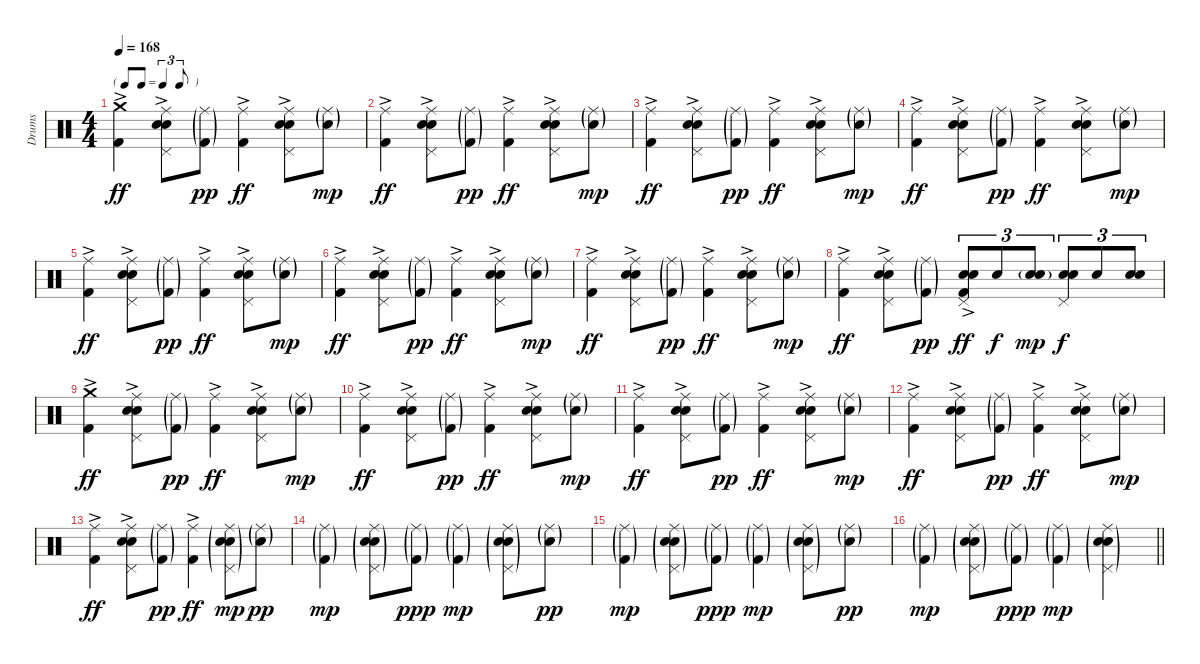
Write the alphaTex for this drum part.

\track ("Drums" "Drums") {instrument percussion}
\staff {score}
\articulation defaults
\ts (4 4)
\tf triplet8th
\tempo 168
\clef neutral
\ks c
("Crash medium (hit)" "Kick (hit) 2"{ac}).4{dy ff} ("Ride (middle)" "Pedal Hi-Hat (hit)" "Electric Snare (hit)"{ac} "Snare (hit) 2").8 ("Ride (middle)"{g} "Kick (hit) 2"{g}).8{dy pp} ("Ride (middle)" "Kick (hit) 2"{ac}).4{dy ff} ("Ride (middle)" "Pedal Hi-Hat (hit)" "Electric Snare (hit)"{ac} "Snare (hit) 2").8 ("Ride (middle)"{g} "Snare (hit) 2"{g}).8{dy mp} |
("Ride (middle)" "Kick (hit) 2"{ac}).4{dy ff} ("Ride (middle)" "Pedal Hi-Hat (hit)" "Electric Snare (hit)"{ac} "Snare (hit) 2").8 ("Ride (middle)"{g} "Kick (hit) 2"{g}).8{dy pp} ("Ride (middle)" "Kick (hit) 2"{ac}).4{dy ff} ("Ride (middle)" "Pedal Hi-Hat (hit)" "Electric Snare (hit)"{ac} "Snare (hit) 2").8 ("Ride (middle)"{g} "Snare (hit) 2"{g}).8{dy mp} |
("Ride (middle)" "Kick (hit) 2"{ac}).4{dy ff} ("Ride (middle)" "Pedal Hi-Hat (hit)" "Electric Snare (hit)"{ac} "Snare (hit) 2").8 ("Ride (middle)"{g} "Kick (hit) 2"{g}).8{dy pp} ("Ride (middle)" "Kick (hit) 2"{ac}).4{dy ff} ("Ride (middle)" "Pedal Hi-Hat (hit)" "Electric Snare (hit)"{ac} "Snare (hit) 2").8 ("Ride (middle)"{g} "Snare (hit) 2"{g}).8{dy mp} |
("Ride (middle)" "Kick (hit) 2"{ac}).4{dy ff} ("Ride (middle)" "Pedal Hi-Hat (hit)" "Electric Snare (hit)"{ac} "Snare (hit) 2").8 ("Ride (middle)"{g} "Kick (hit) 2"{g}).8{dy pp} ("Ride (middle)" "Kick (hit) 2"{ac}).4{dy ff} ("Ride (middle)" "Pedal Hi-Hat (hit)" "Electric Snare (hit)"{ac} "Snare (hit) 2").8 ("Ride (middle)"{g} "Snare (hit) 2"{g}).8{dy mp} |
("Ride (middle)" "Kick (hit) 2"{ac}).4{dy ff} ("Ride (middle)" "Pedal Hi-Hat (hit)" "Electric Snare (hit)"{ac} "Snare (hit) 2").8 ("Ride (middle)"{g} "Kick (hit) 2"{g}).8{dy pp} ("Ride (middle)" "Kick (hit) 2"{ac}).4{dy ff} ("Ride (middle)" "Pedal Hi-Hat (hit)" "Electric Snare (hit)"{ac} "Snare (hit) 2").8 ("Ride (middle)"{g} "Snare (hit) 2"{g}).8{dy mp} |
("Ride (middle)" "Kick (hit) 2"{ac}).4{dy ff} ("Ride (middle)" "Pedal Hi-Hat (hit)" "Electric Snare (hit)"{ac} "Snare (hit) 2").8 ("Ride (middle)"{g} "Kick (hit) 2"{g}).8{dy pp} ("Ride (middle)" "Kick (hit) 2"{ac}).4{dy ff} ("Ride (middle)" "Pedal Hi-Hat (hit)" "Electric Snare (hit)"{ac} "Snare (hit) 2").8 ("Ride (middle)"{g} "Snare (hit) 2"{g}).8{dy mp} |
("Ride (middle)" "Kick (hit) 2"{ac}).4{dy ff} ("Ride (middle)" "Pedal Hi-Hat (hit)" "Electric Snare (hit)"{ac} "Snare (hit) 2").8 ("Ride (middle)"{g} "Kick (hit) 2"{g}).8{dy pp} ("Ride (middle)" "Kick (hit) 2"{ac}).4{dy ff} ("Ride (middle)" "Pedal Hi-Hat (hit)" "Electric Snare (hit)"{ac} "Snare (hit) 2").8 ("Ride (middle)"{g} "Snare (hit) 2"{g}).8{dy mp} |
("Ride (middle)" "Kick (hit) 2"{ac}).4{dy ff} ("Ride (middle)" "Pedal Hi-Hat (hit)" "Electric Snare (hit)"{ac} "Snare (hit) 2").8 ("Ride (middle)"{g} "Kick (hit) 2"{g}).8{dy pp} ("Pedal Hi-Hat (hit)" "Electric Snare (hit)" "Snare (hit) 2" "Kick (hit) 2"{ac}).8{tu (3 2) dy ff} "Snare (hit) 2".8{tu (3 2) dy f} ("Electric Snare (hit)"{g} "Snare (hit) 2").8{tu (3 2) dy mp} ("Pedal Hi-Hat (hit)" "Electric Snare (hit)" "Snare (hit) 2").8{tu (3 2) dy f} "Snare (hit) 2".8{tu (3 2)} ("Electric Snare (hit)" "Snare (hit) 2").8{tu (3 2)} |
("Crash medium (hit)" "Kick (hit) 2"{ac}).4{dy ff} ("Ride (middle)" "Pedal Hi-Hat (hit)" "Electric Snare (hit)"{ac} "Snare (hit) 2").8 ("Ride (middle)"{g} "Kick (hit) 2"{g}).8{dy pp} ("Ride (middle)" "Kick (hit) 2"{ac}).4{dy ff} ("Ride (middle)" "Pedal Hi-Hat (hit)" "Electric Snare (hit)"{ac} "Snare (hit) 2").8 ("Ride (middle)"{g} "Snare (hit) 2"{g}).8{dy mp} |
("Ride (middle)" "Kick (hit) 2"{ac}).4{dy ff} ("Ride (middle)" "Pedal Hi-Hat (hit)" "Electric Snare (hit)"{ac} "Snare (hit) 2").8 ("Ride (middle)"{g} "Kick (hit) 2"{g}).8{dy pp} ("Ride (middle)" "Kick (hit) 2"{ac}).4{dy ff} ("Ride (middle)" "Pedal Hi-Hat (hit)" "Electric Snare (hit)"{ac} "Snare (hit) 2").8 ("Ride (middle)"{g} "Snare (hit) 2"{g}).8{dy mp} |
("Ride (middle)" "Kick (hit) 2"{ac}).4{dy ff} ("Ride (middle)" "Pedal Hi-Hat (hit)" "Electric Snare (hit)"{ac} "Snare (hit) 2").8 ("Ride (middle)"{g} "Kick (hit) 2"{g}).8{dy pp} ("Ride (middle)" "Kick (hit) 2"{ac}).4{dy ff} ("Ride (middle)" "Pedal Hi-Hat (hit)" "Electric Snare (hit)"{ac} "Snare (hit) 2").8 ("Ride (middle)"{g} "Snare (hit) 2"{g}).8{dy mp} |
("Ride (middle)" "Kick (hit) 2"{ac}).4{dy ff} ("Ride (middle)" "Pedal Hi-Hat (hit)" "Electric Snare (hit)"{ac} "Snare (hit) 2").8 ("Ride (middle)"{g} "Kick (hit) 2"{g}).8{dy pp} ("Ride (middle)" "Kick (hit) 2"{ac}).4{dy ff} ("Ride (middle)" "Pedal Hi-Hat (hit)" "Electric Snare (hit)"{ac} "Snare (hit) 2").8 ("Ride (middle)"{g} "Snare (hit) 2"{g}).8{dy mp} |
("Ride (middle)" "Kick (hit) 2"{ac}).4{dy ff} ("Ride (middle)" "Pedal Hi-Hat (hit)" "Electric Snare (hit)"{ac} "Snare (hit) 2").8 ("Ride (middle)"{g} "Kick (hit) 2"{g}).8{dy pp} ("Ride (middle)" "Kick (hit) 2"{ac}).4{dy ff} ("Ride (middle)"{g} "Pedal Hi-Hat (hit)"{g} "Electric Snare (hit)"{g} "Snare (hit) 2"{g}).8{dy mp} ("Ride (middle)"{g} "Snare (hit) 2"{g}).8{dy pp} |
("Ride (middle)"{g} "Kick (hit) 2"{g}).4{dy mp} ("Ride (middle)"{g} "Pedal Hi-Hat (hit)"{g} "Electric Snare (hit)"{g} "Snare (hit) 2"{g}).8 ("Ride (middle)"{g} "Kick (hit) 2"{g}).8{dy ppp} ("Ride (middle)"{g} "Kick (hit) 2"{g}).4{dy mp} ("Ride (middle)"{g} "Pedal Hi-Hat (hit)"{g} "Electric Snare (hit)"{g} "Snare (hit) 2"{g}).8 ("Ride (middle)"{g} "Snare (hit) 2"{g}).8{dy pp} |
("Ride (middle)"{g} "Kick (hit) 2"{g}).4{dy mp} ("Ride (middle)"{g} "Pedal Hi-Hat (hit)"{g} "Electric Snare (hit)"{g} "Snare (hit) 2"{g}).8 ("Ride (middle)"{g} "Kick (hit) 2"{g}).8{dy ppp} ("Ride (middle)"{g} "Kick (hit) 2"{g}).4{dy mp} ("Ride (middle)"{g} "Pedal Hi-Hat (hit)"{g} "Electric Snare (hit)"{g} "Snare (hit) 2"{g}).8 ("Ride (middle)"{g} "Snare (hit) 2"{g}).8{dy pp} |
\barLineRight lightlight
("Ride (middle)"{g} "Kick (hit) 2"{g}).4{dy mp} ("Ride (middle)"{g} "Pedal Hi-Hat (hit)"{g} "Electric Snare (hit)"{g} "Snare (hit) 2"{g}).8 ("Ride (middle)"{g} "Kick (hit) 2"{g}).8{dy ppp} ("Ride (middle)"{g} "Kick (hit) 2"{g}).4{dy mp} ("Ride (middle)"{g} "Pedal Hi-Hat (hit)"{g} "Electric Snare (hit)"{g} "Snare (hit) 2"{g}).4
